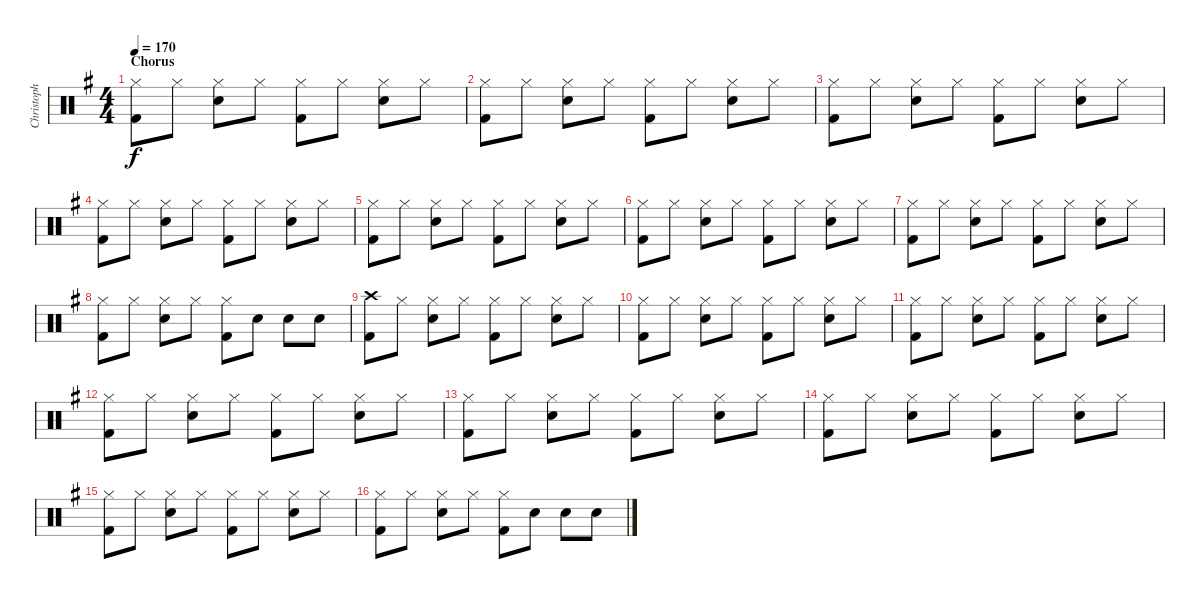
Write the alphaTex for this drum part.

\track ("Christoph Doom Schneider - Drums" "Christoph ") {instrument percussion}
\staff {score}
\articulation defaults
\ts (4 4)
\section ("" "Chorus")
\tempo 170
\clef neutral
\ks g
("Hi-Hat (closed)" "Kick (hit) 2").8{dy f} "Hi-Hat (closed)".8 ("Hi-Hat (closed)" "Electric Snare (hit)").8 "Hi-Hat (closed)".8 ("Hi-Hat (closed)" "Kick (hit) 2").8 "Hi-Hat (closed)".8 ("Hi-Hat (closed)" "Electric Snare (hit)").8 "Hi-Hat (closed)".8 |
("Hi-Hat (closed)" "Kick (hit) 2").8 "Hi-Hat (closed)".8 ("Hi-Hat (closed)" "Electric Snare (hit)").8 "Hi-Hat (closed)".8 ("Hi-Hat (closed)" "Kick (hit) 2").8 "Hi-Hat (closed)".8 ("Hi-Hat (closed)" "Electric Snare (hit)").8 "Hi-Hat (closed)".8 |
("Hi-Hat (closed)" "Kick (hit) 2").8 "Hi-Hat (closed)".8 ("Hi-Hat (closed)" "Electric Snare (hit)").8 "Hi-Hat (closed)".8 ("Hi-Hat (closed)" "Kick (hit) 2").8 "Hi-Hat (closed)".8 ("Hi-Hat (closed)" "Electric Snare (hit)").8 "Hi-Hat (closed)".8 |
("Hi-Hat (closed)" "Kick (hit) 2").8 "Hi-Hat (closed)".8 ("Hi-Hat (closed)" "Electric Snare (hit)").8 "Hi-Hat (closed)".8 ("Hi-Hat (closed)" "Kick (hit) 2").8 "Hi-Hat (closed)".8 ("Hi-Hat (closed)" "Electric Snare (hit)").8 "Hi-Hat (closed)".8 |
("Hi-Hat (closed)" "Kick (hit) 2").8 "Hi-Hat (closed)".8 ("Hi-Hat (closed)" "Electric Snare (hit)").8 "Hi-Hat (closed)".8 ("Hi-Hat (closed)" "Kick (hit) 2").8 "Hi-Hat (closed)".8 ("Hi-Hat (closed)" "Electric Snare (hit)").8 "Hi-Hat (closed)".8 |
("Hi-Hat (closed)" "Kick (hit) 2").8 "Hi-Hat (closed)".8 ("Hi-Hat (closed)" "Electric Snare (hit)").8 "Hi-Hat (closed)".8 ("Hi-Hat (closed)" "Kick (hit) 2").8 "Hi-Hat (closed)".8 ("Hi-Hat (closed)" "Electric Snare (hit)").8 "Hi-Hat (closed)".8 |
("Hi-Hat (closed)" "Kick (hit) 2").8 "Hi-Hat (closed)".8 ("Hi-Hat (closed)" "Electric Snare (hit)").8 "Hi-Hat (closed)".8 ("Hi-Hat (closed)" "Kick (hit) 2").8 "Hi-Hat (closed)".8 ("Hi-Hat (closed)" "Electric Snare (hit)").8 "Hi-Hat (closed)".8 |
("Hi-Hat (closed)" "Kick (hit) 2").8 "Hi-Hat (closed)".8 ("Hi-Hat (closed)" "Electric Snare (hit)").8 "Hi-Hat (closed)".8 ("Hi-Hat (closed)" "Kick (hit) 2").8 "Electric Snare (hit)".8 "Electric Snare (hit)".8 "Electric Snare (hit)".8 |
("Crash high (hit)" "Kick (hit) 2").8 "Hi-Hat (closed)".8 ("Hi-Hat (closed)" "Electric Snare (hit)").8 "Hi-Hat (closed)".8 ("Hi-Hat (closed)" "Kick (hit) 2").8 "Hi-Hat (closed)".8 ("Hi-Hat (closed)" "Electric Snare (hit)").8 "Hi-Hat (closed)".8 |
("Hi-Hat (closed)" "Kick (hit) 2").8 "Hi-Hat (closed)".8 ("Hi-Hat (closed)" "Electric Snare (hit)").8 "Hi-Hat (closed)".8 ("Hi-Hat (closed)" "Kick (hit) 2").8 "Hi-Hat (closed)".8 ("Hi-Hat (closed)" "Electric Snare (hit)").8 "Hi-Hat (closed)".8 |
("Hi-Hat (closed)" "Kick (hit) 2").8 "Hi-Hat (closed)".8 ("Hi-Hat (closed)" "Electric Snare (hit)").8 "Hi-Hat (closed)".8 ("Hi-Hat (closed)" "Kick (hit) 2").8 "Hi-Hat (closed)".8 ("Hi-Hat (closed)" "Electric Snare (hit)").8 "Hi-Hat (closed)".8 |
("Hi-Hat (closed)" "Kick (hit) 2").8 "Hi-Hat (closed)".8 ("Hi-Hat (closed)" "Electric Snare (hit)").8 "Hi-Hat (closed)".8 ("Hi-Hat (closed)" "Kick (hit) 2").8 "Hi-Hat (closed)".8 ("Hi-Hat (closed)" "Electric Snare (hit)").8 "Hi-Hat (closed)".8 |
("Hi-Hat (closed)" "Kick (hit) 2").8 "Hi-Hat (closed)".8 ("Hi-Hat (closed)" "Electric Snare (hit)").8 "Hi-Hat (closed)".8 ("Hi-Hat (closed)" "Kick (hit) 2").8 "Hi-Hat (closed)".8 ("Hi-Hat (closed)" "Electric Snare (hit)").8 "Hi-Hat (closed)".8 |
("Hi-Hat (closed)" "Kick (hit) 2").8 "Hi-Hat (closed)".8 ("Hi-Hat (closed)" "Electric Snare (hit)").8 "Hi-Hat (closed)".8 ("Hi-Hat (closed)" "Kick (hit) 2").8 "Hi-Hat (closed)".8 ("Hi-Hat (closed)" "Electric Snare (hit)").8 "Hi-Hat (closed)".8 |
("Hi-Hat (closed)" "Kick (hit) 2").8 "Hi-Hat (closed)".8 ("Hi-Hat (closed)" "Electric Snare (hit)").8 "Hi-Hat (closed)".8 ("Hi-Hat (closed)" "Kick (hit) 2").8 "Hi-Hat (closed)".8 ("Hi-Hat (closed)" "Electric Snare (hit)").8 "Hi-Hat (closed)".8 |
("Hi-Hat (closed)" "Kick (hit) 2").8 "Hi-Hat (closed)".8 ("Hi-Hat (closed)" "Electric Snare (hit)").8 "Hi-Hat (closed)".8 ("Hi-Hat (closed)" "Kick (hit) 2").8 "Electric Snare (hit)".8 "Electric Snare (hit)".8 "Electric Snare (hit)".8
